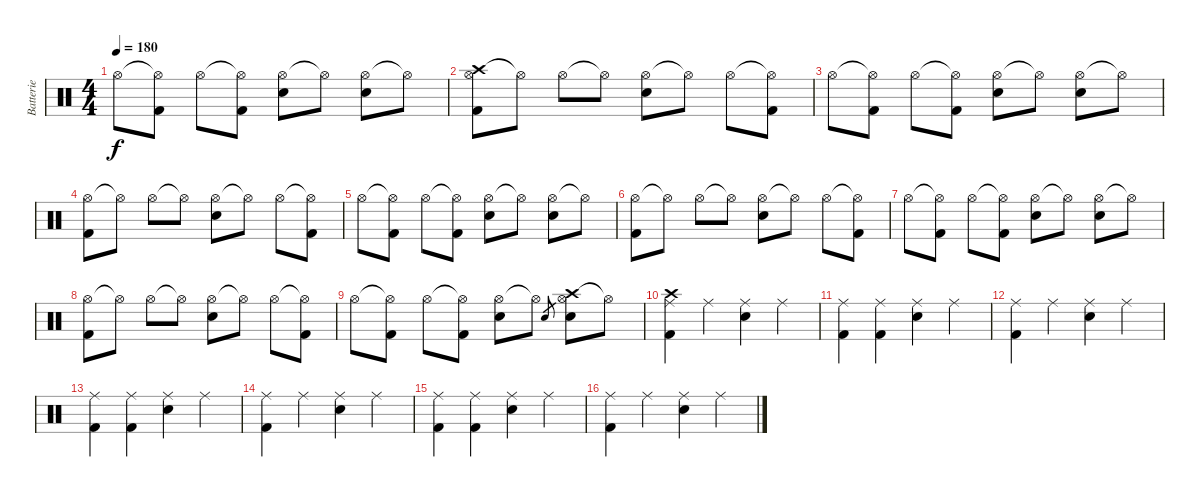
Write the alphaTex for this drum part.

\track ("Batterie" "Batterie") {instrument percussion}
\staff {score}
\articulation defaults
\ts (4 4)
\tempo 180
\clef neutral
\ks c "Hi-Hat (open)".8{dy f}
("Hi-Hat (open)"{t} "Kick (hit) 2").8 "Hi-Hat (open)".8 ("Hi-Hat (open)"{t} "Kick (hit) 2").8 ("Hi-Hat (open)" "Electric Snare (hit)").8 "Hi-Hat (open)"{t}.8 ("Hi-Hat (open)" "Electric Snare (hit)").8 "Hi-Hat (open)"{t}.8 |
("Crash high (hit)" "Hi-Hat (open)" "Kick (hit) 2").8 "Hi-Hat (open)"{t}.8 "Hi-Hat (open)".8 "Hi-Hat (open)"{t}.8 ("Hi-Hat (open)" "Electric Snare (hit)").8 "Hi-Hat (open)"{t}.8 "Hi-Hat (open)".8 ("Hi-Hat (open)"{t} "Kick (hit) 2").8 |
"Hi-Hat (open)".8 ("Hi-Hat (open)"{t} "Kick (hit) 2").8 "Hi-Hat (open)".8 ("Hi-Hat (open)"{t} "Kick (hit) 2").8 ("Hi-Hat (open)" "Electric Snare (hit)").8 "Hi-Hat (open)"{t}.8 ("Hi-Hat (open)" "Electric Snare (hit)").8 "Hi-Hat (open)"{t}.8 |
("Hi-Hat (open)" "Kick (hit) 2").8 "Hi-Hat (open)"{t}.8 "Hi-Hat (open)".8 "Hi-Hat (open)"{t}.8 ("Hi-Hat (open)" "Electric Snare (hit)").8 "Hi-Hat (open)"{t}.8 "Hi-Hat (open)".8 ("Hi-Hat (open)"{t} "Kick (hit) 2").8 |
"Hi-Hat (open)".8 ("Hi-Hat (open)"{t} "Kick (hit) 2").8 "Hi-Hat (open)".8 ("Hi-Hat (open)"{t} "Kick (hit) 2").8 ("Hi-Hat (open)" "Electric Snare (hit)").8 "Hi-Hat (open)"{t}.8 ("Hi-Hat (open)" "Electric Snare (hit)").8 "Hi-Hat (open)"{t}.8 |
("Hi-Hat (open)" "Kick (hit) 2").8 "Hi-Hat (open)"{t}.8 "Hi-Hat (open)".8 "Hi-Hat (open)"{t}.8 ("Hi-Hat (open)" "Electric Snare (hit)").8 "Hi-Hat (open)"{t}.8 "Hi-Hat (open)".8 ("Hi-Hat (open)"{t} "Kick (hit) 2").8 |
"Hi-Hat (open)".8 ("Hi-Hat (open)"{t} "Kick (hit) 2").8 "Hi-Hat (open)".8 ("Hi-Hat (open)"{t} "Kick (hit) 2").8 ("Hi-Hat (open)" "Electric Snare (hit)").8 "Hi-Hat (open)"{t}.8 ("Hi-Hat (open)" "Electric Snare (hit)").8 "Hi-Hat (open)"{t}.8 |
("Hi-Hat (open)" "Kick (hit) 2").8 "Hi-Hat (open)"{t}.8 "Hi-Hat (open)".8 "Hi-Hat (open)"{t}.8 ("Hi-Hat (open)" "Electric Snare (hit)").8 "Hi-Hat (open)"{t}.8 "Hi-Hat (open)".8 ("Hi-Hat (open)"{t} "Kick (hit) 2").8 |
"Hi-Hat (open)".8 ("Hi-Hat (open)"{t} "Kick (hit) 2").8 "Hi-Hat (open)".8 ("Hi-Hat (open)"{t} "Kick (hit) 2").8 ("Hi-Hat (open)" "Electric Snare (hit)").8 "Hi-Hat (open)"{t}.8 "Electric Snare (hit)".8{gr} ("Crash high (hit)" "Hi-Hat (open)" "Electric Snare (hit)").8 "Hi-Hat (open)"{t}.8 |
("Crash high (hit)" "Ride (middle)" "Kick (hit) 2").4 "Ride (middle)".4 ("Ride (middle)" "Electric Snare (hit)").4 "Ride (middle)".4 |
("Ride (middle)" "Kick (hit) 2").4 ("Ride (middle)" "Kick (hit) 2").4 ("Ride (middle)" "Electric Snare (hit)").4 "Ride (middle)".4 |
("Ride (middle)" "Kick (hit) 2").4 "Ride (middle)".4 ("Ride (middle)" "Electric Snare (hit)").4 "Ride (middle)".4 |
("Ride (middle)" "Kick (hit) 2").4 ("Ride (middle)" "Kick (hit) 2").4 ("Ride (middle)" "Electric Snare (hit)").4 "Ride (middle)".4 |
("Ride (middle)" "Kick (hit) 2").4 "Ride (middle)".4 ("Ride (middle)" "Electric Snare (hit)").4 "Ride (middle)".4 |
("Ride (middle)" "Kick (hit) 2").4 ("Ride (middle)" "Kick (hit) 2").4 ("Ride (middle)" "Electric Snare (hit)").4 "Ride (middle)".4 |
("Ride (middle)" "Kick (hit) 2").4 "Ride (middle)".4 ("Ride (middle)" "Electric Snare (hit)").4 "Ride (middle)".4
